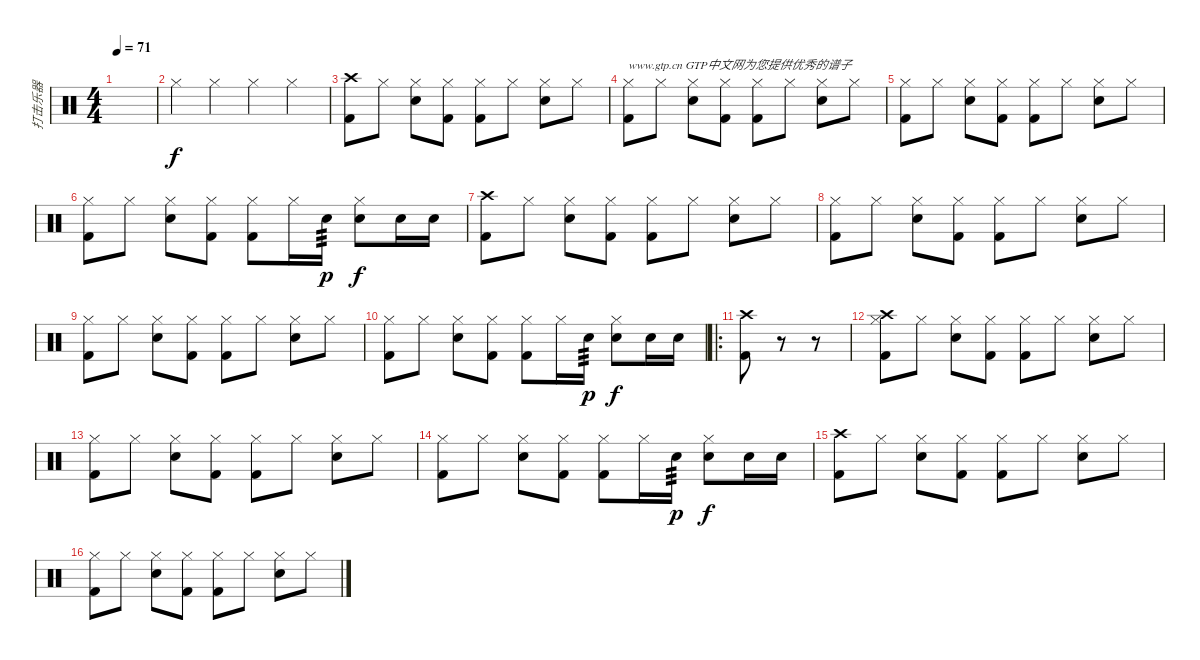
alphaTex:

\track ("打击乐器" "打击乐器") {instrument percussion}
\staff {score}
\articulation defaults
\ts (4 4)
\tempo 71
\clef neutral
\ks c
|
"Hi-Hat (closed)".4 "Hi-Hat (closed)".4 "Hi-Hat (closed)".4 "Hi-Hat (closed)".4 |
("Crash high (hit)" "Kick (hit) 2").8 "Hi-Hat (closed)".8 ("Hi-Hat (closed)" "Electric Snare (hit)").8 ("Hi-Hat (closed)" "Kick (hit) 2").8 ("Hi-Hat (closed)" "Kick (hit) 2").8 "Hi-Hat (closed)".8 ("Hi-Hat (closed)" "Electric Snare (hit)").8 "Hi-Hat (closed)".8 |
("Hi-Hat (closed)" "Kick (hit) 2").8{txt "www.gtp.cn GTP中文网为您提供优秀的谱子"} "Hi-Hat (closed)".8 ("Hi-Hat (closed)" "Electric Snare (hit)").8 ("Hi-Hat (closed)" "Kick (hit) 2").8 ("Hi-Hat (closed)" "Kick (hit) 2").8 "Hi-Hat (closed)".8 ("Hi-Hat (closed)" "Electric Snare (hit)").8 "Hi-Hat (closed)".8 |
("Hi-Hat (closed)" "Kick (hit) 2").8 "Hi-Hat (closed)".8 ("Hi-Hat (closed)" "Electric Snare (hit)").8 ("Hi-Hat (closed)" "Kick (hit) 2").8 ("Hi-Hat (closed)" "Kick (hit) 2").8 "Hi-Hat (closed)".8 ("Hi-Hat (closed)" "Electric Snare (hit)").8 "Hi-Hat (closed)".8 |
("Hi-Hat (closed)" "Kick (hit) 2").8 "Hi-Hat (closed)".8 ("Hi-Hat (closed)" "Electric Snare (hit)").8 ("Hi-Hat (closed)" "Kick (hit) 2").8 ("Hi-Hat (closed)" "Kick (hit) 2").8 "Hi-Hat (closed)".16 "Electric Snare (hit)".16{tp 3 dy p} ("Hi-Hat (closed)" "Electric Snare (hit)").8{dy f} "Electric Snare (hit)".16 "Electric Snare (hit)".16 |
("Crash high (hit)" "Kick (hit) 2").8 "Hi-Hat (closed)".8 ("Hi-Hat (closed)" "Electric Snare (hit)").8 ("Hi-Hat (closed)" "Kick (hit) 2").8 ("Hi-Hat (closed)" "Kick (hit) 2").8 "Hi-Hat (closed)".8 ("Hi-Hat (closed)" "Electric Snare (hit)").8 "Hi-Hat (closed)".8 |
("Hi-Hat (closed)" "Kick (hit) 2").8 "Hi-Hat (closed)".8 ("Hi-Hat (closed)" "Electric Snare (hit)").8 ("Hi-Hat (closed)" "Kick (hit) 2").8 ("Hi-Hat (closed)" "Kick (hit) 2").8 "Hi-Hat (closed)".8 ("Hi-Hat (closed)" "Electric Snare (hit)").8 "Hi-Hat (closed)".8 |
("Hi-Hat (closed)" "Kick (hit) 2").8 "Hi-Hat (closed)".8 ("Hi-Hat (closed)" "Electric Snare (hit)").8 ("Hi-Hat (closed)" "Kick (hit) 2").8 ("Hi-Hat (closed)" "Kick (hit) 2").8 "Hi-Hat (closed)".8 ("Hi-Hat (closed)" "Electric Snare (hit)").8 "Hi-Hat (closed)".8 |
("Hi-Hat (closed)" "Kick (hit) 2").8 "Hi-Hat (closed)".8 ("Hi-Hat (closed)" "Electric Snare (hit)").8 ("Hi-Hat (closed)" "Kick (hit) 2").8 ("Hi-Hat (closed)" "Kick (hit) 2").8 "Hi-Hat (closed)".16 "Electric Snare (hit)".16{tp 3 dy p} ("Hi-Hat (closed)" "Electric Snare (hit)").8{dy f} "Electric Snare (hit)".16 "Electric Snare (hit)".16 |
\ro
("Crash high (hit)" "Kick (hit) 2").8 r.8 r.8 |
("Crash high (hit)" "Hi-Hat (closed)" "Kick (hit) 2").8 "Hi-Hat (closed)".8 ("Hi-Hat (closed)" "Electric Snare (hit)").8 ("Hi-Hat (closed)" "Kick (hit) 2").8 ("Hi-Hat (closed)" "Kick (hit) 2").8 "Hi-Hat (closed)".8 ("Hi-Hat (closed)" "Electric Snare (hit)").8 "Hi-Hat (closed)".8 |
("Hi-Hat (closed)" "Kick (hit) 2").8 "Hi-Hat (closed)".8 ("Hi-Hat (closed)" "Electric Snare (hit)").8 ("Hi-Hat (closed)" "Kick (hit) 2").8 ("Hi-Hat (closed)" "Kick (hit) 2").8 "Hi-Hat (closed)".8 ("Hi-Hat (closed)" "Electric Snare (hit)").8 "Hi-Hat (closed)".8 |
("Hi-Hat (closed)" "Kick (hit) 2").8 "Hi-Hat (closed)".8 ("Hi-Hat (closed)" "Electric Snare (hit)").8 ("Hi-Hat (closed)" "Kick (hit) 2").8 ("Hi-Hat (closed)" "Kick (hit) 2").8 "Hi-Hat (closed)".16 "Electric Snare (hit)".16{tp 3 dy p} ("Hi-Hat (closed)" "Electric Snare (hit)").8{dy f} "Electric Snare (hit)".16 "Electric Snare (hit)".16 |
("Crash high (hit)" "Kick (hit) 2").8 "Hi-Hat (closed)".8 ("Hi-Hat (closed)" "Electric Snare (hit)").8 ("Hi-Hat (closed)" "Kick (hit) 2").8 ("Hi-Hat (closed)" "Kick (hit) 2").8 "Hi-Hat (closed)".8 ("Hi-Hat (closed)" "Electric Snare (hit)").8 "Hi-Hat (closed)".8 |
("Hi-Hat (closed)" "Kick (hit) 2").8 "Hi-Hat (closed)".8 ("Hi-Hat (closed)" "Electric Snare (hit)").8 ("Hi-Hat (closed)" "Kick (hit) 2").8 ("Hi-Hat (closed)" "Kick (hit) 2").8 "Hi-Hat (closed)".8 ("Hi-Hat (closed)" "Electric Snare (hit)").8 "Hi-Hat (closed)".8
